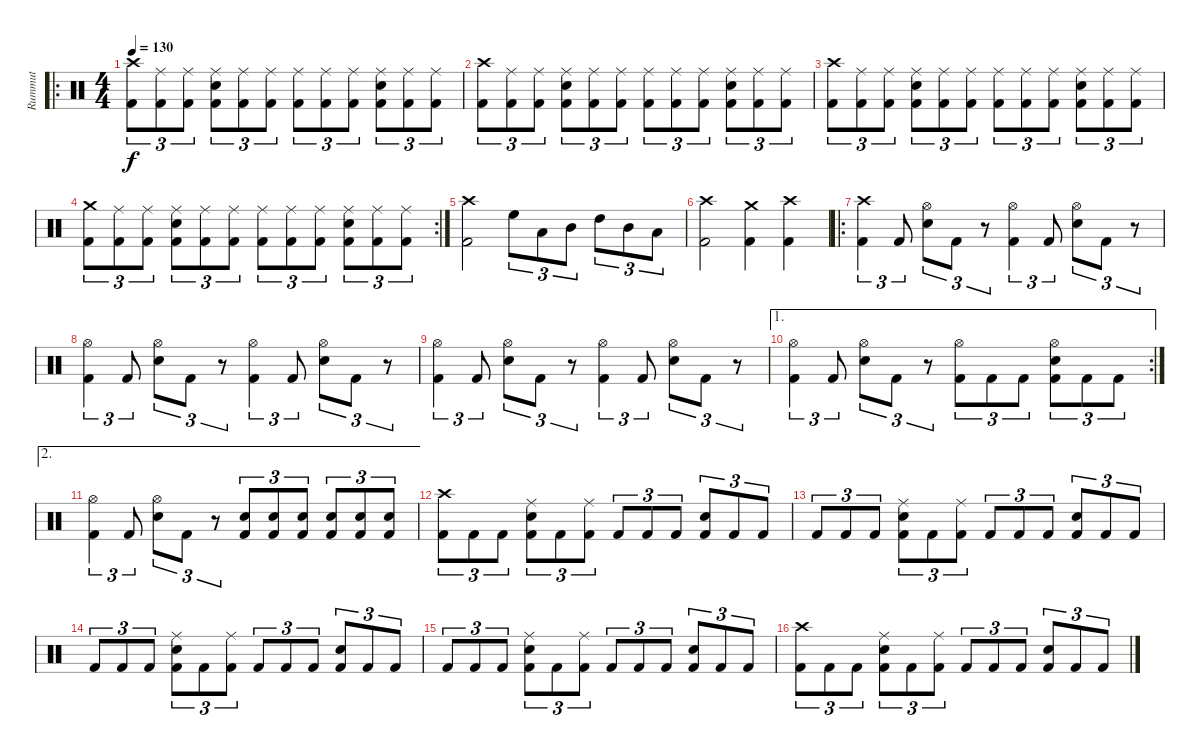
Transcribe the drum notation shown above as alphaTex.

\track ("Rummut" "Rummut") {instrument percussion}
\staff {score}
\articulation defaults
\ro
\ts (4 4)
\tempo 130
\clef neutral
\ks c
("Kick (hit) 2" "Crash high (hit)").8{tu (3 2) dy f} ("Kick (hit) 2" "Ride (middle)").8{tu (3 2)} ("Kick (hit) 2" "Ride (middle)").8{tu (3 2)} ("Kick (hit) 2" "Electric Snare (hit)" "Ride (middle)").8{tu (3 2)} ("Kick (hit) 2" "Ride (middle)").8{tu (3 2)} ("Kick (hit) 2" "Ride (middle)").8{tu (3 2)} ("Kick (hit) 2" "Ride (middle)").8{tu (3 2)} ("Kick (hit) 2" "Ride (middle)").8{tu (3 2)} ("Kick (hit) 2" "Ride (middle)").8{tu (3 2)} ("Kick (hit) 2" "Electric Snare (hit)" "Ride (middle)").8{tu (3 2)} ("Kick (hit) 2" "Ride (middle)").8{tu (3 2)} ("Kick (hit) 2" "Ride (middle)").8{tu (3 2)} |
("Kick (hit) 2" "Crash high (hit)").8{tu (3 2)} ("Kick (hit) 2" "Ride (middle)").8{tu (3 2)} ("Kick (hit) 2" "Ride (middle)").8{tu (3 2)} ("Kick (hit) 2" "Electric Snare (hit)" "Ride (middle)").8{tu (3 2)} ("Kick (hit) 2" "Ride (middle)").8{tu (3 2)} ("Kick (hit) 2" "Ride (middle)").8{tu (3 2)} ("Kick (hit) 2" "Ride (middle)").8{tu (3 2)} ("Kick (hit) 2" "Ride (middle)").8{tu (3 2)} ("Kick (hit) 2" "Ride (middle)").8{tu (3 2)} ("Kick (hit) 2" "Electric Snare (hit)" "Ride (middle)").8{tu (3 2)} ("Kick (hit) 2" "Ride (middle)").8{tu (3 2)} ("Kick (hit) 2" "Ride (middle)").8{tu (3 2)} |
("Kick (hit) 2" "Crash high (hit)").8{tu (3 2)} ("Kick (hit) 2" "Ride (middle)").8{tu (3 2)} ("Kick (hit) 2" "Ride (middle)").8{tu (3 2)} ("Kick (hit) 2" "Electric Snare (hit)" "Ride (middle)").8{tu (3 2)} ("Kick (hit) 2" "Ride (middle)").8{tu (3 2)} ("Kick (hit) 2" "Ride (middle)").8{tu (3 2)} ("Kick (hit) 2" "Ride (middle)").8{tu (3 2)} ("Kick (hit) 2" "Ride (middle)").8{tu (3 2)} ("Kick (hit) 2" "Ride (middle)").8{tu (3 2)} ("Kick (hit) 2" "Electric Snare (hit)" "Ride (middle)").8{tu (3 2)} ("Kick (hit) 2" "Ride (middle)").8{tu (3 2)} ("Kick (hit) 2" "Ride (middle)").8{tu (3 2)} |
\rc 2
("Kick (hit) 2" "Crash medium (hit)").8{tu (3 2)} ("Kick (hit) 2" "Ride (middle)").8{tu (3 2)} ("Kick (hit) 2" "Ride (middle)").8{tu (3 2)} ("Kick (hit) 2" "Electric Snare (hit)" "Ride (middle)").8{tu (3 2)} ("Kick (hit) 2" "Ride (middle)").8{tu (3 2)} ("Kick (hit) 2" "Ride (middle)").8{tu (3 2)} ("Kick (hit) 2" "Ride (middle)").8{tu (3 2)} ("Kick (hit) 2" "Ride (middle)").8{tu (3 2)} ("Kick (hit) 2" "Ride (middle)").8{tu (3 2)} ("Kick (hit) 2" "Electric Snare (hit)" "Ride (middle)").8{tu (3 2)} ("Kick (hit) 2" "Ride (middle)").8{tu (3 2)} ("Kick (hit) 2" "Ride (middle)").8{tu (3 2)} |
("Crash high (hit)" "Kick (hit) 2").2 "High Floor Tom (hit)".8{tu (3 2)} "Low Tom (hit)".8{tu (3 2)} "Mid Tom (hit)".8{tu (3 2)} "High Tom (hit)".8{tu (3 2)} "Mid Tom (hit)".8{tu (3 2)} "Low Tom (hit)".8{tu (3 2)} |
("Crash high (hit)" "Kick (hit) 2").2 ("Crash medium (hit)" "Kick (hit) 2").4 ("Crash high (hit)" "Kick (hit) 2").4 |
\ro
("Kick (hit) 2" "Crash high (hit)").4{tu (3 2)} "Kick (hit) 2".8{tu (3 2)} ("Electric Snare (hit)" "Hi-Hat (open)").8{tu (3 2)} "Kick (hit) 2".8{tu (3 2)} r.8{tu (3 2)} ("Kick (hit) 2" "Hi-Hat (open)").4{tu (3 2)} "Kick (hit) 2".8{tu (3 2)} ("Electric Snare (hit)" "Hi-Hat (open)").8{tu (3 2)} "Kick (hit) 2".8{tu (3 2)} r.8{tu (3 2)} |
("Kick (hit) 2" "Hi-Hat (open)").4{tu (3 2)} "Kick (hit) 2".8{tu (3 2)} ("Electric Snare (hit)" "Hi-Hat (open)").8{tu (3 2)} "Kick (hit) 2".8{tu (3 2)} r.8{tu (3 2)} ("Kick (hit) 2" "Hi-Hat (open)").4{tu (3 2)} "Kick (hit) 2".8{tu (3 2)} ("Electric Snare (hit)" "Hi-Hat (open)").8{tu (3 2)} "Kick (hit) 2".8{tu (3 2)} r.8{tu (3 2)} |
("Kick (hit) 2" "Hi-Hat (open)").4{tu (3 2)} "Kick (hit) 2".8{tu (3 2)} ("Electric Snare (hit)" "Hi-Hat (open)").8{tu (3 2)} "Kick (hit) 2".8{tu (3 2)} r.8{tu (3 2)} ("Kick (hit) 2" "Hi-Hat (open)").4{tu (3 2)} "Kick (hit) 2".8{tu (3 2)} ("Electric Snare (hit)" "Hi-Hat (open)").8{tu (3 2)} "Kick (hit) 2".8{tu (3 2)} r.8{tu (3 2)} |
\ae 1
\rc 2
("Kick (hit) 2" "Hi-Hat (open)").4{tu (3 2)} "Kick (hit) 2".8{tu (3 2)} ("Electric Snare (hit)" "Hi-Hat (open)").8{tu (3 2)} "Kick (hit) 2".8{tu (3 2)} r.8{tu (3 2)} ("Kick (hit) 2" "Hi-Hat (open)").8{tu (3 2)} "Kick (hit) 2".8{tu (3 2)} "Kick (hit) 2".8{tu (3 2)} ("Kick (hit) 2" "Electric Snare (hit)" "Hi-Hat (open)").8{tu (3 2)} "Kick (hit) 2".8{tu (3 2)} "Kick (hit) 2".8{tu (3 2)} |
\ae 2
("Kick (hit) 2" "Hi-Hat (open)").4{tu (3 2)} "Kick (hit) 2".8{tu (3 2)} ("Electric Snare (hit)" "Hi-Hat (open)").8{tu (3 2)} "Kick (hit) 2".8{tu (3 2)} r.8{tu (3 2)} ("Kick (hit) 2" "Electric Snare (hit)").8{tu (3 2)} ("Kick (hit) 2" "Electric Snare (hit)").8{tu (3 2)} ("Kick (hit) 2" "Electric Snare (hit)").8{tu (3 2)} ("Kick (hit) 2" "Electric Snare (hit)").8{tu (3 2)} ("Kick (hit) 2" "Electric Snare (hit)").8{tu (3 2)} ("Kick (hit) 2" "Electric Snare (hit)").8{tu (3 2)} |
("Kick (hit) 2" "Crash high (hit)").8{tu (3 2)} "Kick (hit) 2".8{tu (3 2)} "Kick (hit) 2".8{tu (3 2)} ("Kick (hit) 2" "Electric Snare (hit)" "Ride (middle)").8{tu (3 2)} "Kick (hit) 2".8{tu (3 2)} ("Kick (hit) 2" "Ride (middle)").8{tu (3 2)} "Kick (hit) 2".8{tu (3 2)} "Kick (hit) 2".8{tu (3 2)} "Kick (hit) 2".8{tu (3 2)} ("Kick (hit) 2" "Electric Snare (hit)").8{tu (3 2)} "Kick (hit) 2".8{tu (3 2)} "Kick (hit) 2".8{tu (3 2)} |
"Kick (hit) 2".8{tu (3 2)} "Kick (hit) 2".8{tu (3 2)} "Kick (hit) 2".8{tu (3 2)} ("Kick (hit) 2" "Electric Snare (hit)" "Ride (middle)").8{tu (3 2)} "Kick (hit) 2".8{tu (3 2)} ("Kick (hit) 2" "Ride (middle)").8{tu (3 2)} "Kick (hit) 2".8{tu (3 2)} "Kick (hit) 2".8{tu (3 2)} "Kick (hit) 2".8{tu (3 2)} ("Kick (hit) 2" "Electric Snare (hit)").8{tu (3 2)} "Kick (hit) 2".8{tu (3 2)} "Kick (hit) 2".8{tu (3 2)} |
"Kick (hit) 2".8{tu (3 2)} "Kick (hit) 2".8{tu (3 2)} "Kick (hit) 2".8{tu (3 2)} ("Kick (hit) 2" "Electric Snare (hit)" "Ride (middle)").8{tu (3 2)} "Kick (hit) 2".8{tu (3 2)} ("Kick (hit) 2" "Ride (middle)").8{tu (3 2)} "Kick (hit) 2".8{tu (3 2)} "Kick (hit) 2".8{tu (3 2)} "Kick (hit) 2".8{tu (3 2)} ("Kick (hit) 2" "Electric Snare (hit)").8{tu (3 2)} "Kick (hit) 2".8{tu (3 2)} "Kick (hit) 2".8{tu (3 2)} |
"Kick (hit) 2".8{tu (3 2)} "Kick (hit) 2".8{tu (3 2)} "Kick (hit) 2".8{tu (3 2)} ("Kick (hit) 2" "Electric Snare (hit)" "Ride (middle)").8{tu (3 2)} "Kick (hit) 2".8{tu (3 2)} ("Kick (hit) 2" "Ride (middle)").8{tu (3 2)} "Kick (hit) 2".8{tu (3 2)} "Kick (hit) 2".8{tu (3 2)} "Kick (hit) 2".8{tu (3 2)} ("Kick (hit) 2" "Electric Snare (hit)").8{tu (3 2)} "Kick (hit) 2".8{tu (3 2)} "Kick (hit) 2".8{tu (3 2)} |
("Kick (hit) 2" "Crash high (hit)").8{tu (3 2)} "Kick (hit) 2".8{tu (3 2)} "Kick (hit) 2".8{tu (3 2)} ("Kick (hit) 2" "Electric Snare (hit)" "Ride (middle)").8{tu (3 2)} "Kick (hit) 2".8{tu (3 2)} ("Kick (hit) 2" "Ride (middle)").8{tu (3 2)} "Kick (hit) 2".8{tu (3 2)} "Kick (hit) 2".8{tu (3 2)} "Kick (hit) 2".8{tu (3 2)} ("Kick (hit) 2" "Electric Snare (hit)").8{tu (3 2)} "Kick (hit) 2".8{tu (3 2)} "Kick (hit) 2".8{tu (3 2)}
